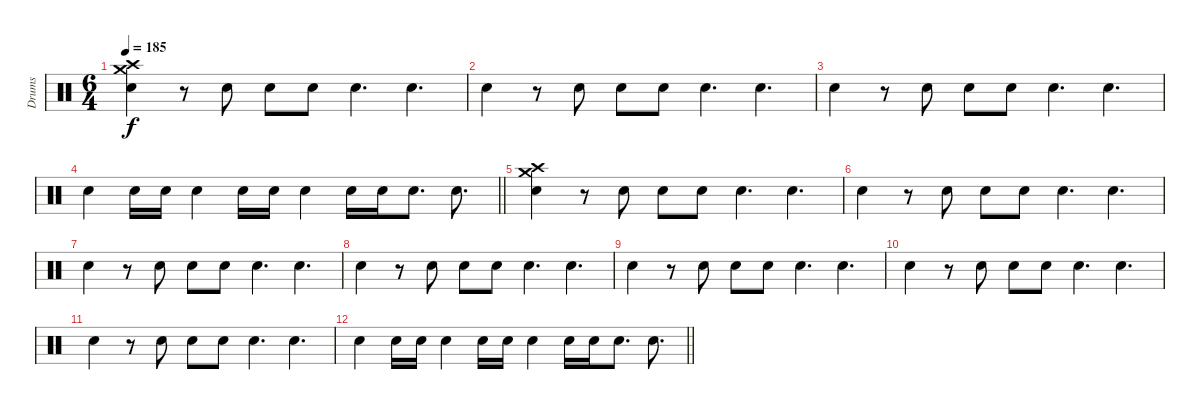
\track ("Drums" "Drums") {instrument percussion}
\staff {score}
\articulation defaults
\ts (6 4)
\section ("" "")
\tempo 185
\clef neutral
\ks c
("Crash medium (hit)" "Crash high (hit)" "Snare (hit) 2").4{dy f} r.8 "Snare (hit) 2".8 "Snare (hit) 2".8 "Snare (hit) 2".8 "Snare (hit) 2".4{d} "Snare (hit) 2".4{d} |
"Snare (hit) 2".4 r.8 "Snare (hit) 2".8 "Snare (hit) 2".8 "Snare (hit) 2".8 "Snare (hit) 2".4{d} "Snare (hit) 2".4{d} |
"Snare (hit) 2".4 r.8 "Snare (hit) 2".8 "Snare (hit) 2".8 "Snare (hit) 2".8 "Snare (hit) 2".4{d} "Snare (hit) 2".4{d} |
\barLineRight lightlight "Snare (hit) 2".4 "Snare (hit) 2".16 "Snare (hit) 2".16 "Snare (hit) 2".4 "Snare (hit) 2".16 "Snare (hit) 2".16 "Snare (hit) 2".4 "Snare (hit) 2".16 "Snare (hit) 2".16 "Snare (hit) 2".8{d} "Snare (hit) 2".8{d}
|
\section ("" "")
("Crash medium (hit)" "Crash high (hit)" "Snare (hit) 2").4{volume 8} r.8 "Snare (hit) 2".8 "Snare (hit) 2".8 "Snare (hit) 2".8 "Snare (hit) 2".4{d} "Snare (hit) 2".4{d} |
"Snare (hit) 2".4 r.8 "Snare (hit) 2".8 "Snare (hit) 2".8 "Snare (hit) 2".8 "Snare (hit) 2".4{d} "Snare (hit) 2".4{d} |
"Snare (hit) 2".4 r.8 "Snare (hit) 2".8 "Snare (hit) 2".8 "Snare (hit) 2".8 "Snare (hit) 2".4{d} "Snare (hit) 2".4{d volume 4} |
"Snare (hit) 2".4 r.8 "Snare (hit) 2".8 "Snare (hit) 2".8 "Snare (hit) 2".8 "Snare (hit) 2".4{d} "Snare (hit) 2".4{d} |
"Snare (hit) 2".4 r.8 "Snare (hit) 2".8 "Snare (hit) 2".8 "Snare (hit) 2".8 "Snare (hit) 2".4{d} "Snare (hit) 2".4{d} |
"Snare (hit) 2".4 r.8 "Snare (hit) 2".8 "Snare (hit) 2".8 "Snare (hit) 2".8 "Snare (hit) 2".4{d volume 0} "Snare (hit) 2".4{d} |
"Snare (hit) 2".4 r.8 "Snare (hit) 2".8 "Snare (hit) 2".8 "Snare (hit) 2".8 "Snare (hit) 2".4{d} "Snare (hit) 2".4{d} |
\barLineRight lightlight "Snare (hit) 2".4 "Snare (hit) 2".16 "Snare (hit) 2".16 "Snare (hit) 2".4 "Snare (hit) 2".16 "Snare (hit) 2".16 "Snare (hit) 2".4 "Snare (hit) 2".16 "Snare (hit) 2".16 "Snare (hit) 2".8{d} "Snare (hit) 2".8{d}
